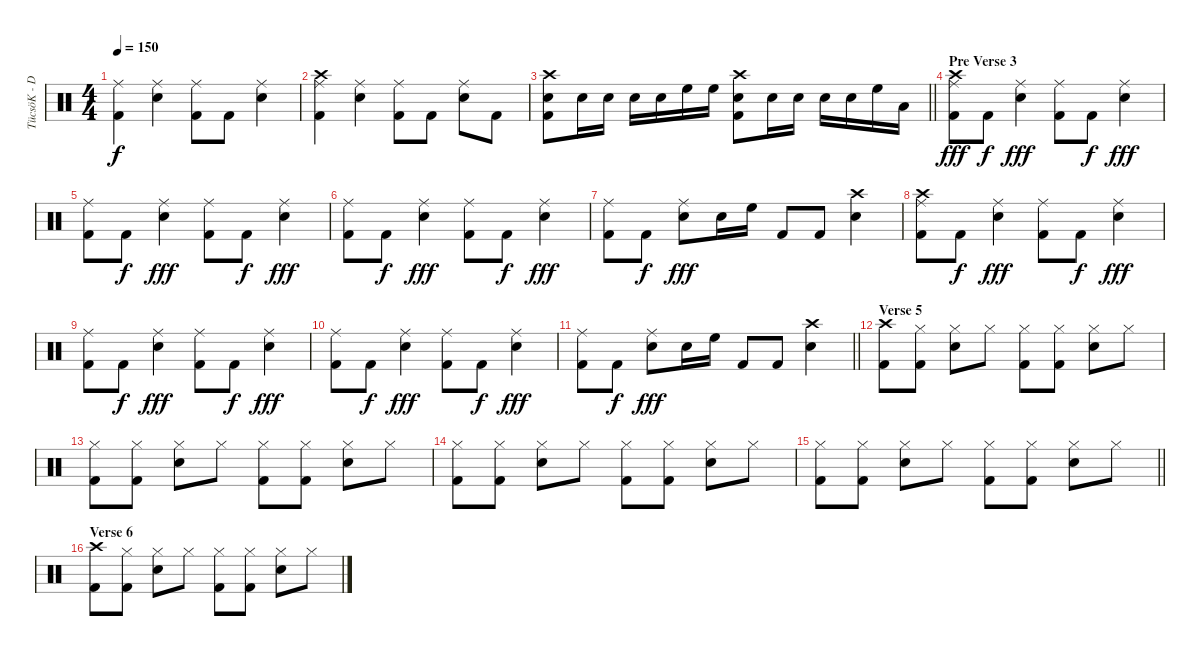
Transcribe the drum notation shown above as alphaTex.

\track ("TücsöK - Dob" "TücsöK - D") {instrument percussion}
\staff {score}
\articulation defaults
\ts (4 4)
\tempo 150
\clef neutral
\ks c
("Ride (middle)" "Kick (hit) 2").4{dy f} ("Ride (middle)" "Snare (hit) 2").4 ("Ride (middle)" "Kick (hit) 2").8 "Kick (hit) 2".8 ("Ride (middle)" "Snare (hit) 2").4 |
("Crash high (hit)" "Ride (middle)" "Kick (hit) 2").4 ("Ride (middle)" "Snare (hit) 2").4 ("Ride (middle)" "Kick (hit) 2").8 "Kick (hit) 2".8 ("Ride (middle)" "Snare (hit) 2").8 "Kick (hit) 2".8 |
\barLineRight lightlight
("Crash high (hit)" "Snare (hit) 2" "Kick (hit) 2").8 "Snare (hit) 2".16 "Snare (hit) 2".16 "Snare (hit) 2".16 "Snare (hit) 2".16 "High Floor Tom (hit)".16 "High Floor Tom (hit)".16 ("Crash high (hit)" "Snare (hit) 2" "Kick (hit) 2").8 "Snare (hit) 2".16 "Snare (hit) 2".16 "Snare (hit) 2".16 "Snare (hit) 2".16 "High Floor Tom (hit)".16 "Low Tom (hit)".16 |
\section ("" "Pre Verse 3")
("Crash high (hit)" "Ride (middle)" "Kick (hit) 2").8{dy fff} "Kick (hit) 2".8{dy f} ("Ride (middle)" "Snare (hit) 2").4{dy fff} ("Ride (middle)" "Kick (hit) 2").8 "Kick (hit) 2".8{dy f} ("Ride (middle)" "Snare (hit) 2").4{dy fff} |
("Ride (middle)" "Kick (hit) 2").8 "Kick (hit) 2".8{dy f} ("Ride (middle)" "Snare (hit) 2").4{dy fff} ("Ride (middle)" "Kick (hit) 2").8 "Kick (hit) 2".8{dy f} ("Ride (middle)" "Snare (hit) 2").4{dy fff} |
("Ride (middle)" "Kick (hit) 2").8 "Kick (hit) 2".8{dy f} ("Ride (middle)" "Snare (hit) 2").4{dy fff} ("Ride (middle)" "Kick (hit) 2").8 "Kick (hit) 2".8{dy f} ("Ride (middle)" "Snare (hit) 2").4{dy fff} |
("Ride (middle)" "Kick (hit) 2").8 "Kick (hit) 2".8{dy f} ("Ride (middle)" "Snare (hit) 2").8{dy fff} "Snare (hit) 2".16 "High Floor Tom (hit)".16 "Kick (hit) 2".8 "Kick (hit) 2".8 ("Crash high (hit)" "Snare (hit) 2").4 |
("Crash high (hit)" "Ride (middle)" "Kick (hit) 2").8 "Kick (hit) 2".8{dy f} ("Ride (middle)" "Snare (hit) 2").4{dy fff} ("Ride (middle)" "Kick (hit) 2").8 "Kick (hit) 2".8{dy f} ("Ride (middle)" "Snare (hit) 2").4{dy fff} |
("Ride (middle)" "Kick (hit) 2").8 "Kick (hit) 2".8{dy f} ("Ride (middle)" "Snare (hit) 2").4{dy fff} ("Ride (middle)" "Kick (hit) 2").8 "Kick (hit) 2".8{dy f} ("Ride (middle)" "Snare (hit) 2").4{dy fff} |
("Ride (middle)" "Kick (hit) 2").8 "Kick (hit) 2".8{dy f} ("Ride (middle)" "Snare (hit) 2").4{dy fff} ("Ride (middle)" "Kick (hit) 2").8 "Kick (hit) 2".8{dy f} ("Ride (middle)" "Snare (hit) 2").4{dy fff} |
\barLineRight lightlight
("Ride (middle)" "Kick (hit) 2").8 "Kick (hit) 2".8{dy f} ("Ride (middle)" "Snare (hit) 2").8{dy fff} "Snare (hit) 2".16 "High Floor Tom (hit)".16 "Kick (hit) 2".8 "Kick (hit) 2".8 ("Crash high (hit)" "Snare (hit) 2").4 |
\section ("" "Verse 5")
("Crash high (hit)" "Kick (hit) 2").8 ("Hi-Hat (closed)" "Kick (hit) 2").8 ("Hi-Hat (closed)" "Snare (hit) 2").8 "Hi-Hat (closed)".8 ("Hi-Hat (closed)" "Kick (hit) 2").8 ("Hi-Hat (closed)" "Kick (hit) 2").8 ("Hi-Hat (closed)" "Snare (hit) 2").8 "Hi-Hat (closed)".8 |
("Hi-Hat (closed)" "Kick (hit) 2").8 ("Hi-Hat (closed)" "Kick (hit) 2").8 ("Hi-Hat (closed)" "Snare (hit) 2").8 "Hi-Hat (closed)".8 ("Hi-Hat (closed)" "Kick (hit) 2").8 ("Hi-Hat (closed)" "Kick (hit) 2").8 ("Hi-Hat (closed)" "Snare (hit) 2").8 "Hi-Hat (closed)".8 |
("Hi-Hat (closed)" "Kick (hit) 2").8 ("Hi-Hat (closed)" "Kick (hit) 2").8 ("Hi-Hat (closed)" "Snare (hit) 2").8 "Hi-Hat (closed)".8 ("Hi-Hat (closed)" "Kick (hit) 2").8 ("Hi-Hat (closed)" "Kick (hit) 2").8 ("Hi-Hat (closed)" "Snare (hit) 2").8 "Hi-Hat (closed)".8 |
\barLineRight lightlight
("Hi-Hat (closed)" "Kick (hit) 2").8 ("Hi-Hat (closed)" "Kick (hit) 2").8 ("Hi-Hat (closed)" "Snare (hit) 2").8 "Hi-Hat (closed)".8 ("Hi-Hat (closed)" "Kick (hit) 2").8 ("Hi-Hat (closed)" "Kick (hit) 2").8 ("Hi-Hat (closed)" "Snare (hit) 2").8 "Hi-Hat (closed)".8 |
\section ("" "Verse 6")
("Crash high (hit)" "Kick (hit) 2").8 ("Hi-Hat (closed)" "Kick (hit) 2").8 ("Hi-Hat (closed)" "Snare (hit) 2").8 "Hi-Hat (closed)".8 ("Hi-Hat (closed)" "Kick (hit) 2").8 ("Hi-Hat (closed)" "Kick (hit) 2").8 ("Hi-Hat (closed)" "Snare (hit) 2").8 "Hi-Hat (closed)".8
